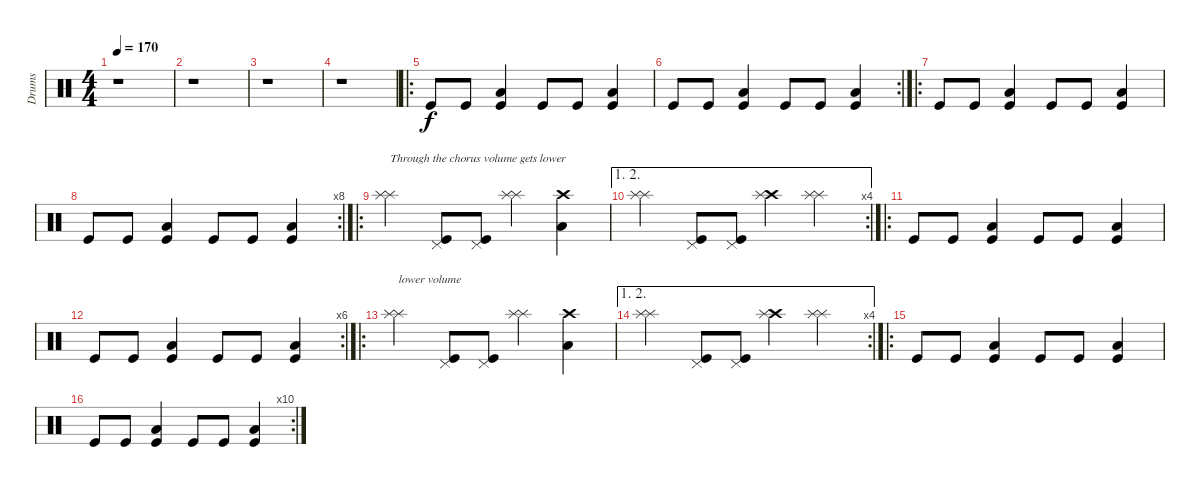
\track ("Drums" "Drums") {instrument percussion}
\staff {score}
\articulation defaults
\ts (4 4)
\tempo 170
\clef neutral
\ks c
r.1{dy f} |
r.1 |
r.1 |
r.1 |
\ro "Kick (hit)".8 "Kick (hit)".8
("Low Tom (hit)" "Kick (hit)").4 "Kick (hit)".8 "Kick (hit)".8 ("Low Tom (hit)" "Kick (hit)").4 |
\rc 2 "Kick (hit)".8 "Kick (hit)".8
("Low Tom (hit)" "Kick (hit)").4 "Kick (hit)".8 "Kick (hit)".8 ("Low Tom (hit)" "Kick (hit)").4 |
\ro "Kick (hit)".8 "Kick (hit)".8
("Low Tom (hit)" "Kick (hit)").4 "Kick (hit)".8 "Kick (hit)".8 ("Low Tom (hit)" "Kick (hit)").4 |
\rc 8 "Kick (hit)".8 "Kick (hit)".8
("Low Tom (hit)" "Kick (hit)").4 "Kick (hit)".8 "Kick (hit)".8 ("Low Tom (hit)" "Kick (hit)").4 |
\ro
("Splash (hit)" "Splash (hit)").4{txt "Through the chorus volume gets lower" volume 10} ("Pedal Hi-Hat (hit)" "Kick (hit)").8 ("Pedal Hi-Hat (hit)" "Kick (hit)").8 ("Splash (hit)" "Splash (hit)").4 ("Crash high (hit)" "Low Tom (hit)").4 |
\ae (1 2)
\rc 4
("Splash (hit)" "Splash (hit)").4 ("Pedal Hi-Hat (hit)" "Kick (hit)").8 ("Pedal Hi-Hat (hit)" "Kick (hit)").8 ("Crash high (hit)" "Splash (hit)").4 ("Splash (hit)" "Splash (hit)").4 |
\ro "Kick (hit)".8{volume 16} "Kick (hit)".8
("Low Tom (hit)" "Kick (hit)").4 "Kick (hit)".8 "Kick (hit)".8 ("Low Tom (hit)" "Kick (hit)").4 |
\rc 6 "Kick (hit)".8 "Kick (hit)".8
("Low Tom (hit)" "Kick (hit)").4 "Kick (hit)".8 "Kick (hit)".8 ("Low Tom (hit)" "Kick (hit)").4 |
\ro
("Splash (hit)" "Splash (hit)").4{txt "lower volume" volume 11} ("Pedal Hi-Hat (hit)" "Kick (hit)").8 ("Pedal Hi-Hat (hit)" "Kick (hit)").8 ("Splash (hit)" "Splash (hit)").4 ("Crash high (hit)" "Low Tom (hit)").4 |
\ae (1 2)
\rc 4
("Splash (hit)" "Splash (hit)").4 ("Pedal Hi-Hat (hit)" "Kick (hit)").8 ("Pedal Hi-Hat (hit)" "Kick (hit)").8 ("Crash high (hit)" "Splash (hit)").4 ("Splash (hit)" "Splash (hit)").4 |
\ro "Kick (hit)".8{volume 16} "Kick (hit)".8
("Low Tom (hit)" "Kick (hit)").4 "Kick (hit)".8 "Kick (hit)".8 ("Low Tom (hit)" "Kick (hit)").4 |
\rc 10 "Kick (hit)".8 "Kick (hit)".8
("Low Tom (hit)" "Kick (hit)").4 "Kick (hit)".8 "Kick (hit)".8 ("Low Tom (hit)" "Kick (hit)").4
